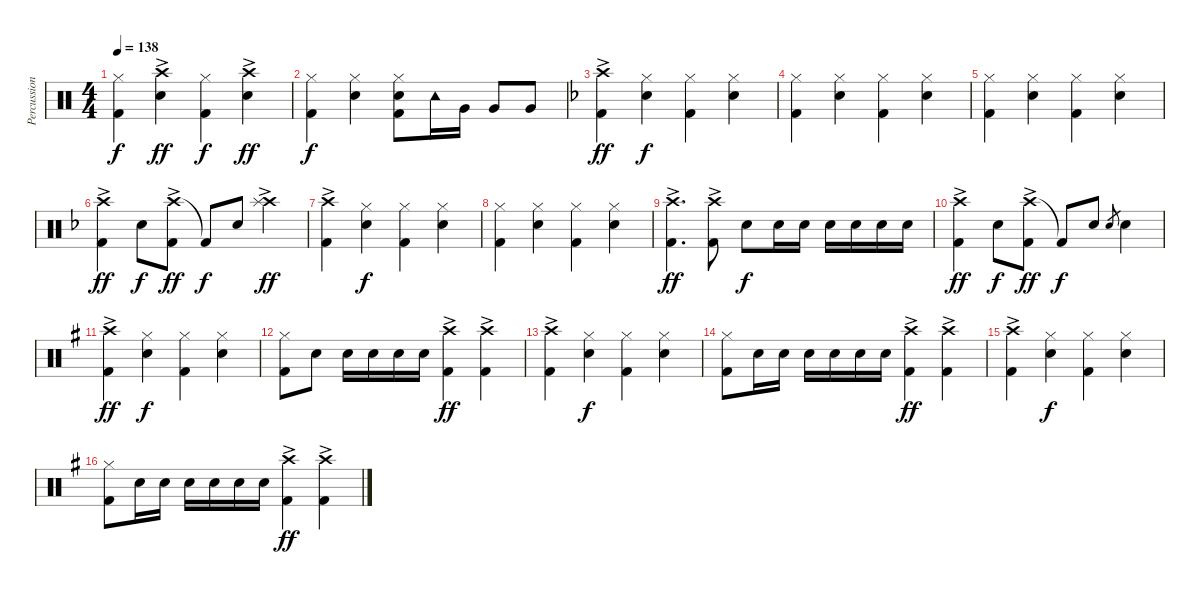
\track ("Percussion" "Percussion") {instrument percussion}
\staff {score}
\articulation defaults
\ts (4 4)
\tempo 138
\clef neutral
\ks c
("Hi-Hat (closed)" "Kick (hit) 2").4{dy f} ("Crash high (hit)"{ac} "Snare (hit) 2"{ac}).4{dy ff} ("Hi-Hat (closed)" "Kick (hit) 2").4{dy f} ("Crash high (hit)"{ac} "Snare (hit) 2"{ac}).4{dy ff} |
("Hi-Hat (closed)" "Kick (hit) 2").4{dy f} ("Hi-Hat (closed)" "Snare (hit) 2").4 ("Hi-Hat (closed)" "Snare (hit) 2" "Kick (hit) 2").8 "Tambourine (hit)".16 "Very Low Tom (hit)".16 "Very Low Tom (hit)".8 "Very Low Tom (hit)".8 |
\ks f
("Crash high (hit)"{ac} "Kick (hit) 2").4{dy ff} ("Hi-Hat (closed)" "Snare (hit) 2").4{dy f} ("Hi-Hat (closed)" "Kick (hit) 2").4 ("Hi-Hat (closed)" "Snare (hit) 2").4 |
("Hi-Hat (closed)" "Kick (hit) 2").4 ("Hi-Hat (closed)" "Snare (hit) 2").4 ("Hi-Hat (closed)" "Kick (hit) 2").4 ("Hi-Hat (closed)" "Snare (hit) 2").4 |
("Hi-Hat (closed)" "Kick (hit) 2").4 ("Hi-Hat (closed)" "Snare (hit) 2").4 ("Hi-Hat (closed)" "Kick (hit) 2").4 ("Hi-Hat (closed)" "Snare (hit) 2").4 |
("Crash high (hit)"{ac} "Kick (hit) 2").4{dy ff} "Snare (hit) 2".8{dy f} ("Crash high (hit)"{ac} "Kick (hit) 2").8{dy ff} "Kick (hit) 2"{t}.8{dy f} "Snare (hit) 2".8 ("Crash high (hit)"{ac} "Splash (hit)"{ac}).4{dy ff} |
("Crash high (hit)"{ac} "Kick (hit) 2").4 ("Hi-Hat (closed)" "Snare (hit) 2").4{dy f} ("Hi-Hat (closed)" "Kick (hit) 2").4 ("Hi-Hat (closed)" "Snare (hit) 2").4 |
("Hi-Hat (closed)" "Kick (hit) 2").4 ("Hi-Hat (closed)" "Snare (hit) 2").4 ("Hi-Hat (closed)" "Kick (hit) 2").4 ("Hi-Hat (closed)" "Snare (hit) 2").4 |
("Crash high (hit)"{ac} "Kick (hit) 2").4{d dy ff} ("Crash high (hit)"{ac} "Kick (hit) 2").8 "Snare (hit) 2".8{dy f} "Snare (hit) 2".16 "Snare (hit) 2".16 "Snare (hit) 2".16{beam merge} "Snare (hit) 2".16 "Snare (hit) 2".16 "Snare (hit) 2".16 |
("Crash high (hit)"{ac} "Kick (hit) 2").4{dy ff} "Snare (hit) 2".8{dy f} ("Crash high (hit)"{ac} "Kick (hit) 2").8{dy ff} "Kick (hit) 2"{t}.8{dy f} "Snare (hit) 2".8 "Snare (hit) 2".8{gr} "Snare (hit) 2".4 |
\ks g
("Crash high (hit)"{ac} "Kick (hit) 2").4{dy ff} ("Hi-Hat (closed)" "Snare (hit) 2").4{dy f} ("Hi-Hat (closed)" "Kick (hit) 2").4 ("Hi-Hat (closed)" "Snare (hit) 2").4 |
("Hi-Hat (closed)" "Kick (hit) 2").8 "Snare (hit) 2".8 "Snare (hit) 2".16 "Snare (hit) 2".16{beam merge} "Snare (hit) 2".16 "Snare (hit) 2".16 ("Crash high (hit)"{ac} "Kick (hit) 2"{ac}).4{dy ff} ("Crash high (hit)"{ac} "Kick (hit) 2"{ac}).4 |
("Crash high (hit)"{ac} "Kick (hit) 2").4 ("Hi-Hat (closed)" "Snare (hit) 2").4{dy f} ("Hi-Hat (closed)" "Kick (hit) 2").4 ("Hi-Hat (closed)" "Snare (hit) 2").4 |
("Hi-Hat (closed)" "Kick (hit) 2").8 "Snare (hit) 2".16 "Snare (hit) 2".16 "Snare (hit) 2".16 "Snare (hit) 2".16{beam merge} "Snare (hit) 2".16 "Snare (hit) 2".16 ("Crash high (hit)"{ac} "Kick (hit) 2"{ac}).4{dy ff} ("Crash high (hit)"{ac} "Kick (hit) 2"{ac}).4 |
("Crash high (hit)"{ac} "Kick (hit) 2").4 ("Hi-Hat (closed)" "Snare (hit) 2").4{dy f} ("Hi-Hat (closed)" "Kick (hit) 2").4 ("Hi-Hat (closed)" "Snare (hit) 2").4 |
("Hi-Hat (closed)" "Kick (hit) 2").8 "Snare (hit) 2".16 "Snare (hit) 2".16 "Snare (hit) 2".16 "Snare (hit) 2".16{beam merge} "Snare (hit) 2".16 "Snare (hit) 2".16 ("Crash high (hit)"{ac} "Kick (hit) 2"{ac}).4{dy ff} ("Crash high (hit)"{ac} "Kick (hit) 2"{ac}).4
